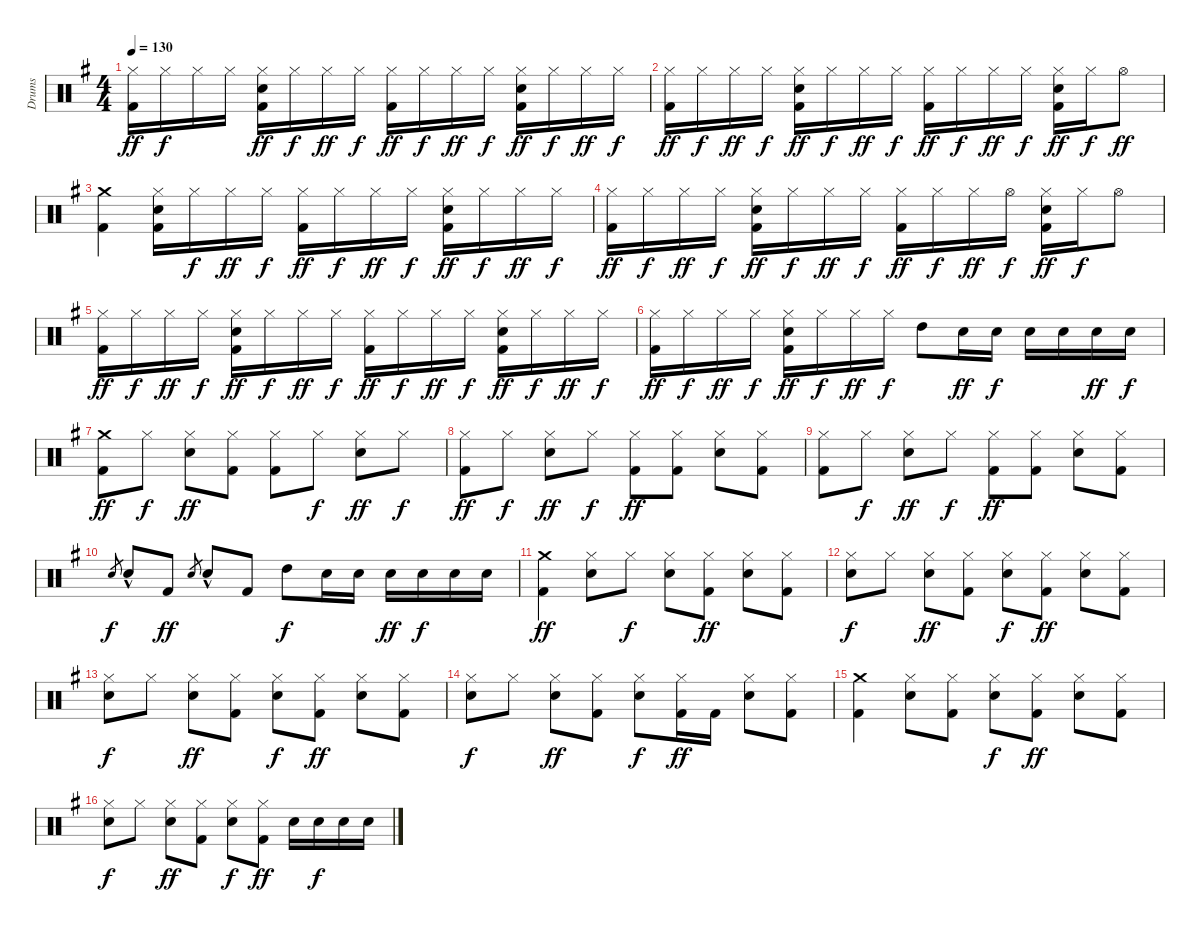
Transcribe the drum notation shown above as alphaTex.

\track ("Drums" "Drums") {instrument percussion}
\staff {score}
\articulation defaults
\ts (4 4)
\tempo 130
\clef neutral
\ks g
("Hi-Hat (closed)" "Kick (hit) 2").16{dy ff} "Hi-Hat (closed)".16{dy f} "Hi-Hat (closed)".16 "Hi-Hat (closed)".16 ("Snare (hit) 2" "Hi-Hat (closed)" "Kick (hit) 2").16{dy ff} "Hi-Hat (closed)".16{dy f} "Hi-Hat (closed)".16{dy ff} "Hi-Hat (closed)".16{dy f} ("Hi-Hat (closed)" "Kick (hit) 2").16{dy ff} "Hi-Hat (closed)".16{dy f} "Hi-Hat (closed)".16{dy ff} "Hi-Hat (closed)".16{dy f} ("Snare (hit) 2" "Hi-Hat (closed)" "Kick (hit) 2").16{dy ff} "Hi-Hat (closed)".16{dy f} "Hi-Hat (closed)".16{dy ff} "Hi-Hat (closed)".16{dy f} |
("Hi-Hat (closed)" "Kick (hit) 2").16{dy ff} "Hi-Hat (closed)".16{dy f} "Hi-Hat (closed)".16{dy ff} "Hi-Hat (closed)".16{dy f} ("Hi-Hat (closed)" "Snare (hit) 2" "Kick (hit) 2").16{dy ff} "Hi-Hat (closed)".16{dy f} "Hi-Hat (closed)".16{dy ff} "Hi-Hat (closed)".16{dy f} ("Hi-Hat (closed)" "Kick (hit) 2").16{dy ff} "Hi-Hat (closed)".16{dy f} "Hi-Hat (closed)".16{dy ff} "Hi-Hat (closed)".16{dy f} ("Hi-Hat (closed)" "Snare (hit) 2" "Kick (hit) 2").16{dy ff} "Hi-Hat (closed)".16{dy f} "Hi-Hat (open)".8{dy ff} |
("Crash medium (hit)" "Kick (hit) 2").4 ("Hi-Hat (closed)" "Snare (hit) 2" "Kick (hit) 2").16 "Hi-Hat (closed)".16{dy f} "Hi-Hat (closed)".16{dy ff} "Hi-Hat (closed)".16{dy f} ("Hi-Hat (closed)" "Kick (hit) 2").16{dy ff} "Hi-Hat (closed)".16{dy f} "Hi-Hat (closed)".16{dy ff} "Hi-Hat (closed)".16{dy f} ("Hi-Hat (closed)" "Snare (hit) 2" "Kick (hit) 2").16{dy ff} "Hi-Hat (closed)".16{dy f} "Hi-Hat (closed)".16{dy ff} "Hi-Hat (closed)".16{dy f} |
("Hi-Hat (closed)" "Kick (hit) 2").16{dy ff} "Hi-Hat (closed)".16{dy f} "Hi-Hat (closed)".16{dy ff} "Hi-Hat (closed)".16{dy f} ("Hi-Hat (closed)" "Snare (hit) 2" "Kick (hit) 2").16{dy ff} "Hi-Hat (closed)".16{dy f} "Hi-Hat (closed)".16{dy ff} "Hi-Hat (closed)".16{dy f} ("Hi-Hat (closed)" "Kick (hit) 2").16{dy ff} "Hi-Hat (closed)".16{dy f} "Hi-Hat (closed)".16{dy ff} "Hi-Hat (open)".16{dy f} ("Hi-Hat (closed)" "Snare (hit) 2" "Kick (hit) 2").16{dy ff} "Hi-Hat (closed)".16{dy f} "Hi-Hat (open)".8 |
("Hi-Hat (closed)" "Kick (hit) 2").16{dy ff} "Hi-Hat (closed)".16{dy f} "Hi-Hat (closed)".16{dy ff} "Hi-Hat (closed)".16{dy f} ("Hi-Hat (closed)" "Snare (hit) 2" "Kick (hit) 2").16{dy ff} "Hi-Hat (closed)".16{dy f} "Hi-Hat (closed)".16{dy ff} "Hi-Hat (closed)".16{dy f} ("Hi-Hat (closed)" "Kick (hit) 2").16{dy ff} "Hi-Hat (closed)".16{dy f} "Hi-Hat (closed)".16{dy ff} "Hi-Hat (closed)".16{dy f} ("Hi-Hat (closed)" "Snare (hit) 2" "Kick (hit) 2").16{dy ff} "Hi-Hat (closed)".16{dy f} "Hi-Hat (closed)".16{dy ff} "Hi-Hat (closed)".16{dy f} |
("Hi-Hat (closed)" "Kick (hit) 2").16{dy ff} "Hi-Hat (closed)".16{dy f} "Hi-Hat (closed)".16{dy ff} "Hi-Hat (closed)".16{dy f} ("Hi-Hat (closed)" "Snare (hit) 2" "Kick (hit) 2").16{dy ff} "Hi-Hat (closed)".16{dy f} "Hi-Hat (closed)".16{dy ff} "Hi-Hat (closed)".16{dy f} "High Tom (hit)".8 "Snare (hit) 2".16{dy ff} "Snare (hit) 2".16{dy f} "Snare (hit) 2".16 "Snare (hit) 2".16 "Snare (hit) 2".16{dy ff} "Snare (hit) 2".16{dy f} |
("Kick (hit) 2" "Crash medium (hit)").8{dy ff} "Hi-Hat (closed)".8{dy f} ("Snare (hit) 2" "Hi-Hat (closed)").8{dy ff} ("Kick (hit) 2" "Hi-Hat (closed)").8 ("Kick (hit) 2" "Hi-Hat (closed)").8 "Hi-Hat (closed)".8{dy f} ("Snare (hit) 2" "Hi-Hat (closed)").8{dy ff} "Hi-Hat (closed)".8{dy f} |
("Kick (hit) 2" "Hi-Hat (closed)").8{dy ff} "Hi-Hat (closed)".8{dy f} ("Snare (hit) 2" "Hi-Hat (closed)").8{dy ff} "Hi-Hat (closed)".8{dy f} ("Kick (hit) 2" "Hi-Hat (closed)").8{dy ff} ("Kick (hit) 2" "Hi-Hat (closed)").8 ("Snare (hit) 2" "Hi-Hat (closed)").8 ("Kick (hit) 2" "Hi-Hat (closed)").8 |
("Kick (hit) 2" "Hi-Hat (closed)").8 "Hi-Hat (closed)".8{dy f} ("Snare (hit) 2" "Hi-Hat (closed)").8{dy ff} "Hi-Hat (closed)".8{dy f} ("Kick (hit) 2" "Hi-Hat (closed)").8{dy ff} ("Kick (hit) 2" "Hi-Hat (closed)").8 ("Snare (hit) 2" "Hi-Hat (closed)").8 ("Kick (hit) 2" "Hi-Hat (closed)").8 |
"Snare (hit) 2".8{gr dy f} "Snare (hit) 2"{hac}.8 "Kick (hit) 2".8{dy ff} "Snare (hit) 2".8{gr} "Snare (hit) 2"{hac}.8 "Kick (hit) 2".8 "High Tom (hit)".8{dy f} "Snare (hit) 2".16 "Snare (hit) 2".16 "Snare (hit) 2".16{dy ff} "Snare (hit) 2".16{dy f} "Snare (hit) 2".16 "Snare (hit) 2".16 |
("Kick (hit) 2" "Crash medium (hit)").4{dy ff} ("Snare (hit) 2" "Hi-Hat (closed)").8 "Hi-Hat (closed)".8{dy f} ("Snare (hit) 2" "Hi-Hat (closed)").8 ("Kick (hit) 2" "Hi-Hat (closed)").8{dy ff} ("Snare (hit) 2" "Hi-Hat (closed)").8 ("Kick (hit) 2" "Hi-Hat (closed)").8 |
("Snare (hit) 2" "Hi-Hat (closed)").8{dy f} "Hi-Hat (closed)".8 ("Snare (hit) 2" "Hi-Hat (closed)").8{dy ff} ("Kick (hit) 2" "Hi-Hat (closed)").8 ("Snare (hit) 2" "Hi-Hat (closed)").8{dy f} ("Kick (hit) 2" "Hi-Hat (closed)").8{dy ff} ("Snare (hit) 2" "Hi-Hat (closed)").8 ("Kick (hit) 2" "Hi-Hat (closed)").8 |
("Snare (hit) 2" "Hi-Hat (closed)").8{dy f} "Hi-Hat (closed)".8 ("Snare (hit) 2" "Hi-Hat (closed)").8{dy ff} ("Kick (hit) 2" "Hi-Hat (closed)").8 ("Snare (hit) 2" "Hi-Hat (closed)").8{dy f} ("Kick (hit) 2" "Hi-Hat (closed)").8{dy ff} ("Snare (hit) 2" "Hi-Hat (closed)").8 ("Kick (hit) 2" "Hi-Hat (closed)").8 |
("Snare (hit) 2" "Hi-Hat (closed)").8{dy f} "Hi-Hat (closed)".8 ("Snare (hit) 2" "Hi-Hat (closed)").8{dy ff} ("Kick (hit) 2" "Hi-Hat (closed)").8 ("Snare (hit) 2" "Hi-Hat (closed)").8{dy f} ("Kick (hit) 2" "Hi-Hat (closed)").16{dy ff} "Kick (hit) 2".16 ("Snare (hit) 2" "Hi-Hat (closed)").8 ("Kick (hit) 2" "Hi-Hat (closed)").8 |
("Kick (hit) 2" "Crash medium (hit)").4 ("Snare (hit) 2" "Hi-Hat (closed)").8 ("Kick (hit) 2" "Hi-Hat (closed)").8 ("Snare (hit) 2" "Hi-Hat (closed)").8{dy f} ("Kick (hit) 2" "Hi-Hat (closed)").8{dy ff} ("Snare (hit) 2" "Hi-Hat (closed)").8 ("Kick (hit) 2" "Hi-Hat (closed)").8 |
("Snare (hit) 2" "Hi-Hat (closed)").8{dy f} "Hi-Hat (closed)".8 ("Snare (hit) 2" "Hi-Hat (closed)").8{dy ff} ("Kick (hit) 2" "Hi-Hat (closed)").8 ("Snare (hit) 2" "Hi-Hat (closed)").8{dy f} ("Kick (hit) 2" "Hi-Hat (closed)").8{dy ff} "Snare (hit) 2".16 "Snare (hit) 2".16{dy f} "Snare (hit) 2".16 "Snare (hit) 2".16
